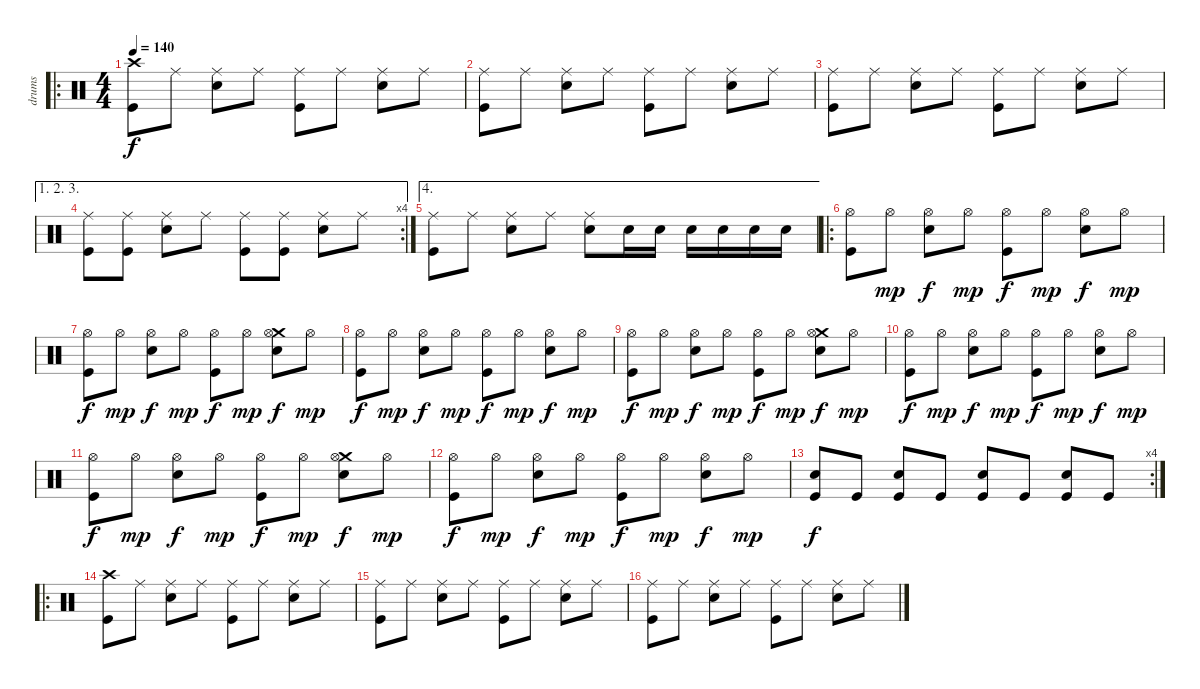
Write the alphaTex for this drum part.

\track ("drums" "drums") {instrument percussion}
\staff {score}
\articulation defaults
\ro
\ts (4 4)
\tempo 140
\clef neutral
\ks c
("Crash high (hit)" "Kick (hit)").8{dy f} "Ride (middle)".8 ("Ride (middle)" "Snare (hit) 2").8 "Ride (middle)".8 ("Ride (middle)" "Kick (hit)").8 "Ride (middle)".8 ("Ride (middle)" "Snare (hit) 2").8 "Ride (middle)".8 |
("Ride (middle)" "Kick (hit)").8 "Ride (middle)".8 ("Ride (middle)" "Snare (hit) 2").8 "Ride (middle)".8 ("Ride (middle)" "Kick (hit)").8 "Ride (middle)".8 ("Ride (middle)" "Snare (hit) 2").8 "Ride (middle)".8 |
("Ride (middle)" "Kick (hit)").8 "Ride (middle)".8 ("Ride (middle)" "Snare (hit) 2").8 "Ride (middle)".8 ("Ride (middle)" "Kick (hit)").8 "Ride (middle)".8 ("Ride (middle)" "Snare (hit) 2").8 "Ride (middle)".8 |
\ae (1 2 3)
\rc 4
("Ride (middle)" "Kick (hit)").8 ("Ride (middle)" "Kick (hit)").8 ("Ride (middle)" "Snare (hit) 2").8 "Ride (middle)".8 ("Ride (middle)" "Kick (hit)").8 ("Ride (middle)" "Kick (hit)").8 ("Ride (middle)" "Snare (hit) 2").8 "Ride (middle)".8 |
\ae 4
("Ride (middle)" "Kick (hit)").8 "Ride (middle)".8 ("Ride (middle)" "Snare (hit) 2").8 "Ride (middle)".8 ("Ride (middle)" "Snare (hit) 2").8 "Snare (hit) 2".16 "Snare (hit) 2".16 "Snare (hit) 2".16 "Snare (hit) 2".16 "Snare (hit) 2".16 "Snare (hit) 2".16 |
\ro
("Hi-Hat (open)" "Kick (hit)").8 "Hi-Hat (open)".8{dy mp} ("Hi-Hat (open)" "Snare (hit) 2").8{dy f} "Hi-Hat (open)".8{dy mp} ("Hi-Hat (open)" "Kick (hit)").8{dy f} "Hi-Hat (open)".8{dy mp} ("Hi-Hat (open)" "Snare (hit) 2").8{dy f} "Hi-Hat (open)".8{dy mp} |
("Hi-Hat (open)" "Kick (hit)").8{dy f} "Hi-Hat (open)".8{dy mp} ("Hi-Hat (open)" "Snare (hit) 2").8{dy f} "Hi-Hat (open)".8{dy mp} ("Hi-Hat (open)" "Kick (hit)").8{dy f} "Hi-Hat (open)".8{dy mp} ("Crash medium (hit)" "Hi-Hat (open)" "Snare (hit) 2").8{dy f} "Hi-Hat (open)".8{dy mp} |
("Hi-Hat (open)" "Kick (hit)").8{dy f} "Hi-Hat (open)".8{dy mp} ("Hi-Hat (open)" "Snare (hit) 2").8{dy f} "Hi-Hat (open)".8{dy mp} ("Hi-Hat (open)" "Kick (hit)").8{dy f} "Hi-Hat (open)".8{dy mp} ("Hi-Hat (open)" "Snare (hit) 2").8{dy f} "Hi-Hat (open)".8{dy mp} |
("Hi-Hat (open)" "Kick (hit)").8{dy f} "Hi-Hat (open)".8{dy mp} ("Hi-Hat (open)" "Snare (hit) 2").8{dy f} "Hi-Hat (open)".8{dy mp} ("Hi-Hat (open)" "Kick (hit)").8{dy f} "Hi-Hat (open)".8{dy mp} ("Crash medium (hit)" "Hi-Hat (open)" "Snare (hit) 2").8{dy f} "Hi-Hat (open)".8{dy mp} |
("Hi-Hat (open)" "Kick (hit)").8{dy f} "Hi-Hat (open)".8{dy mp} ("Hi-Hat (open)" "Snare (hit) 2").8{dy f} "Hi-Hat (open)".8{dy mp} ("Hi-Hat (open)" "Kick (hit)").8{dy f} "Hi-Hat (open)".8{dy mp} ("Hi-Hat (open)" "Snare (hit) 2").8{dy f} "Hi-Hat (open)".8{dy mp} |
("Hi-Hat (open)" "Kick (hit)").8{dy f} "Hi-Hat (open)".8{dy mp} ("Hi-Hat (open)" "Snare (hit) 2").8{dy f} "Hi-Hat (open)".8{dy mp} ("Hi-Hat (open)" "Kick (hit)").8{dy f} "Hi-Hat (open)".8{dy mp} ("Crash medium (hit)" "Hi-Hat (open)" "Snare (hit) 2").8{dy f} "Hi-Hat (open)".8{dy mp} |
("Hi-Hat (open)" "Kick (hit)").8{dy f} "Hi-Hat (open)".8{dy mp} ("Hi-Hat (open)" "Snare (hit) 2").8{dy f} "Hi-Hat (open)".8{dy mp} ("Hi-Hat (open)" "Kick (hit)").8{dy f} "Hi-Hat (open)".8{dy mp} ("Hi-Hat (open)" "Snare (hit) 2").8{dy f} "Hi-Hat (open)".8{dy mp} |
\rc 4
("Snare (hit) 2" "Kick (hit)").8{dy f} "Kick (hit)".8 ("Snare (hit) 2" "Kick (hit)").8 "Kick (hit)".8 ("Snare (hit) 2" "Kick (hit)").8 "Kick (hit)".8 ("Snare (hit) 2" "Kick (hit)").8 "Kick (hit)".8 |
\ro
("Crash high (hit)" "Kick (hit)").8 "Ride (middle)".8 ("Ride (middle)" "Snare (hit) 2").8 "Ride (middle)".8 ("Ride (middle)" "Kick (hit)").8 "Ride (middle)".8 ("Ride (middle)" "Snare (hit) 2").8 "Ride (middle)".8 |
("Ride (middle)" "Kick (hit)").8 "Ride (middle)".8 ("Ride (middle)" "Snare (hit) 2").8 "Ride (middle)".8 ("Ride (middle)" "Kick (hit)").8 "Ride (middle)".8 ("Ride (middle)" "Snare (hit) 2").8 "Ride (middle)".8 |
("Ride (middle)" "Kick (hit)").8 "Ride (middle)".8 ("Ride (middle)" "Snare (hit) 2").8 "Ride (middle)".8 ("Ride (middle)" "Kick (hit)").8 "Ride (middle)".8 ("Ride (middle)" "Snare (hit) 2").8 "Ride (middle)".8
